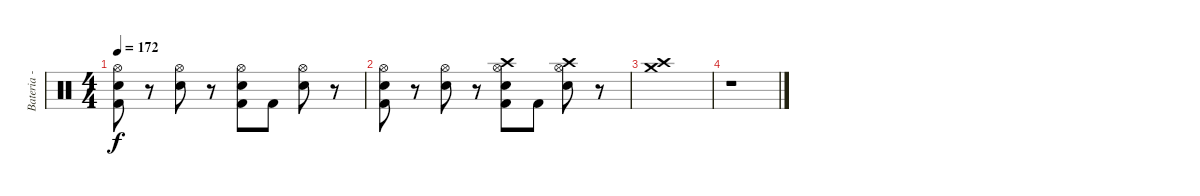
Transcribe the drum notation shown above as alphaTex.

\track ("Bateria - Larzon" "Bateria - ") {instrument percussion}
\staff {score}
\articulation defaults
\ts (4 4)
\tempo 172
\clef neutral
\ks c
("Kick (hit) 2" "Snare (hit) 2" "Hi-Hat (open)").8{dy f} r.8 ("Snare (hit) 2" "Hi-Hat (open)").8 r.8 ("Kick (hit) 2" "Snare (hit) 2" "Hi-Hat (open)").8 "Kick (hit) 2".8 ("Snare (hit) 2" "Hi-Hat (open)").8 r.8 |
("Kick (hit) 2" "Snare (hit) 2" "Hi-Hat (open)").8 r.8 ("Snare (hit) 2" "Hi-Hat (open)").8 r.8 ("Kick (hit) 2" "Snare (hit) 2" "Hi-Hat (open)" "Crash high (hit)").8 "Kick (hit) 2".8 ("Snare (hit) 2" "Hi-Hat (open)" "Crash high (hit)").8 r.8 |
("Crash medium (hit)" "Crash high (hit)").1 |
r.1
